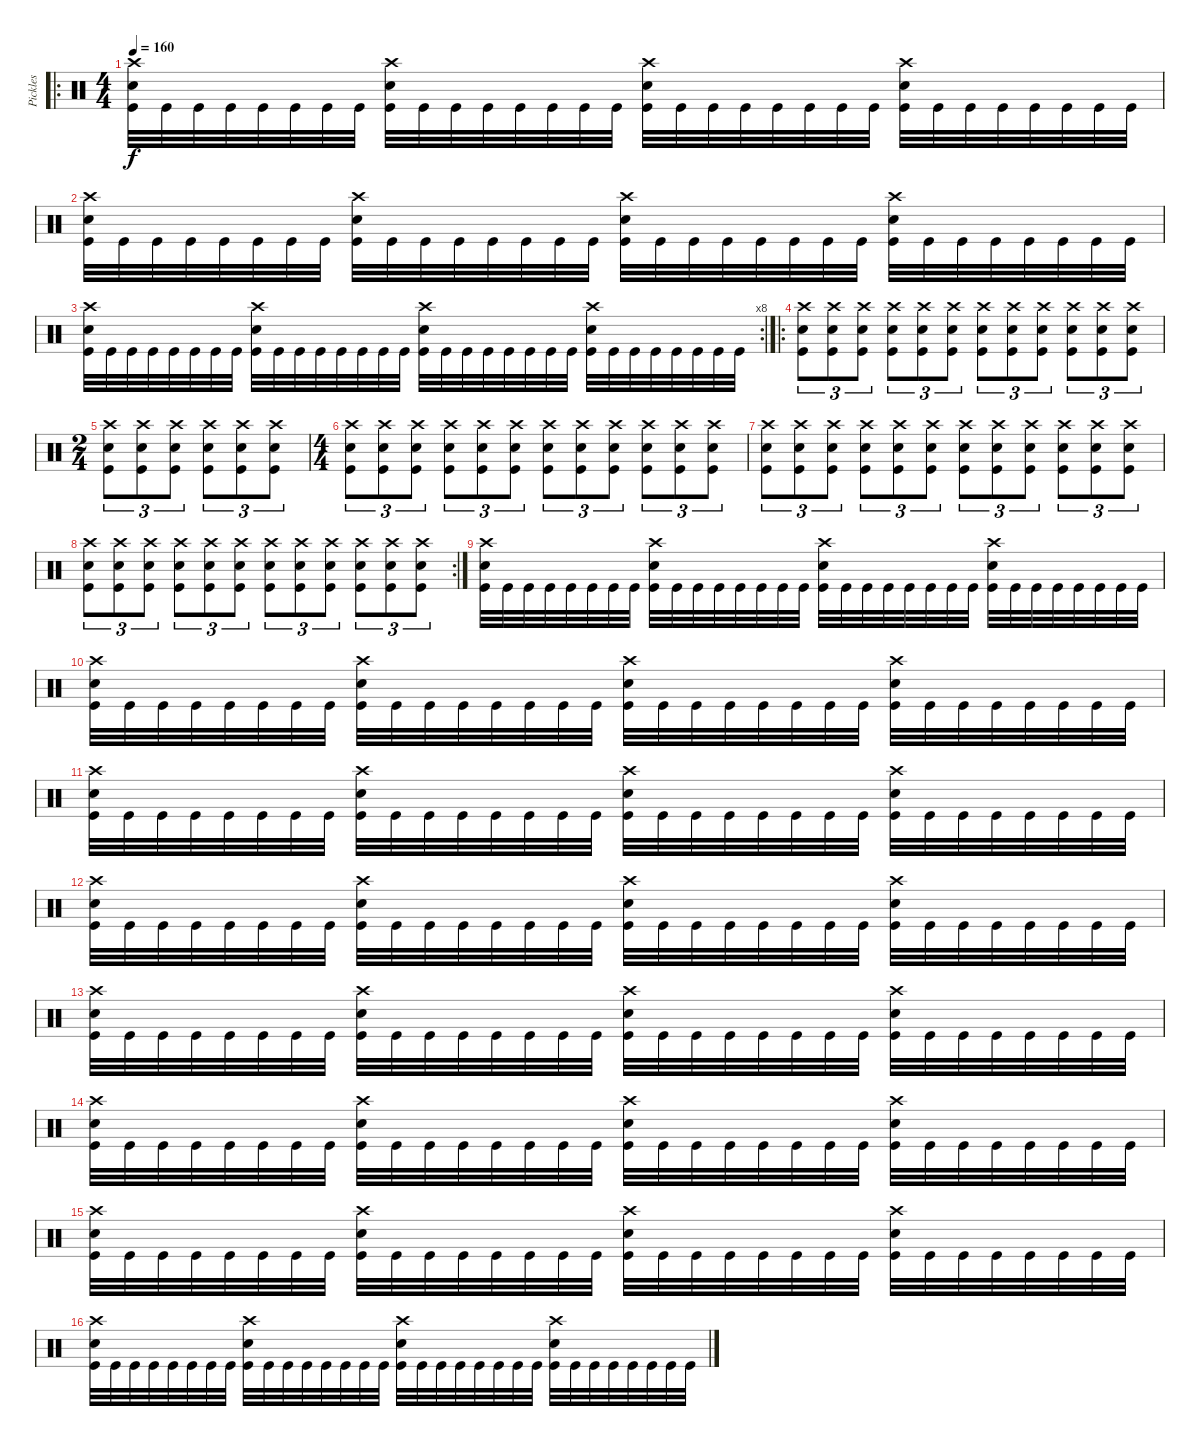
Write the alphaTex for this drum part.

\track ("Pickles" "Pickles") {instrument percussion}
\staff {score}
\articulation defaults
\ro
\ts (4 4)
\tempo 160
\clef neutral
\ks c
("Crash high (hit)" "Snare (hit) 2" "Kick (hit)").32{dy f} "Kick (hit)".32 "Kick (hit)".32 "Kick (hit)".32 "Kick (hit)".32 "Kick (hit)".32 "Kick (hit)".32 "Kick (hit)".32 ("Crash high (hit)" "Snare (hit) 2" "Kick (hit)").32 "Kick (hit)".32 "Kick (hit)".32 "Kick (hit)".32 "Kick (hit)".32 "Kick (hit)".32 "Kick (hit)".32 "Kick (hit)".32 ("Crash high (hit)" "Snare (hit) 2" "Kick (hit)").32 "Kick (hit)".32 "Kick (hit)".32 "Kick (hit)".32 "Kick (hit)".32 "Kick (hit)".32 "Kick (hit)".32 "Kick (hit)".32 ("Crash high (hit)" "Snare (hit) 2" "Kick (hit)").32 "Kick (hit)".32 "Kick (hit)".32 "Kick (hit)".32 "Kick (hit)".32 "Kick (hit)".32 "Kick (hit)".32 "Kick (hit)".32 |
("Crash high (hit)" "Snare (hit) 2" "Kick (hit)").32 "Kick (hit)".32 "Kick (hit)".32 "Kick (hit)".32 "Kick (hit)".32 "Kick (hit)".32 "Kick (hit)".32 "Kick (hit)".32 ("Crash high (hit)" "Snare (hit) 2" "Kick (hit)").32 "Kick (hit)".32 "Kick (hit)".32 "Kick (hit)".32 "Kick (hit)".32 "Kick (hit)".32 "Kick (hit)".32 "Kick (hit)".32 ("Crash high (hit)" "Snare (hit) 2" "Kick (hit)").32 "Kick (hit)".32 "Kick (hit)".32 "Kick (hit)".32 "Kick (hit)".32 "Kick (hit)".32 "Kick (hit)".32 "Kick (hit)".32 ("Crash high (hit)" "Snare (hit) 2" "Kick (hit)").32 "Kick (hit)".32 "Kick (hit)".32 "Kick (hit)".32 "Kick (hit)".32 "Kick (hit)".32 "Kick (hit)".32 "Kick (hit)".32 |
\rc 8
("Crash high (hit)" "Snare (hit) 2" "Kick (hit)").32 "Kick (hit)".32 "Kick (hit)".32 "Kick (hit)".32 "Kick (hit)".32 "Kick (hit)".32 "Kick (hit)".32 "Kick (hit)".32 ("Crash high (hit)" "Snare (hit) 2" "Kick (hit)").32 "Kick (hit)".32 "Kick (hit)".32 "Kick (hit)".32 "Kick (hit)".32 "Kick (hit)".32 "Kick (hit)".32 "Kick (hit)".32 ("Crash high (hit)" "Snare (hit) 2" "Kick (hit)").32 "Kick (hit)".32 "Kick (hit)".32 "Kick (hit)".32 "Kick (hit)".32 "Kick (hit)".32 "Kick (hit)".32 "Kick (hit)".32 ("Crash high (hit)" "Snare (hit) 2" "Kick (hit)").32 "Kick (hit)".32 "Kick (hit)".32 "Kick (hit)".32 "Kick (hit)".32 "Kick (hit)".32 "Kick (hit)".32 "Kick (hit)".32 |
\ro
("Crash high (hit)" "Snare (hit) 2" "Kick (hit)").8{tu (3 2)} ("Crash high (hit)" "Snare (hit) 2" "Kick (hit)").8{tu (3 2)} ("Crash high (hit)" "Snare (hit) 2" "Kick (hit)").8{tu (3 2)} ("Crash high (hit)" "Snare (hit) 2" "Kick (hit)").8{tu (3 2)} ("Crash high (hit)" "Snare (hit) 2" "Kick (hit)").8{tu (3 2)} ("Crash high (hit)" "Snare (hit) 2" "Kick (hit)").8{tu (3 2)} ("Crash high (hit)" "Snare (hit) 2" "Kick (hit)").8{tu (3 2)} ("Crash high (hit)" "Snare (hit) 2" "Kick (hit)").8{tu (3 2)} ("Crash high (hit)" "Snare (hit) 2" "Kick (hit)").8{tu (3 2)} ("Crash high (hit)" "Snare (hit) 2" "Kick (hit)").8{tu (3 2)} ("Crash high (hit)" "Snare (hit) 2" "Kick (hit)").8{tu (3 2)} ("Crash high (hit)" "Snare (hit) 2" "Kick (hit)").8{tu (3 2)} |
\ts (2 4)
("Crash high (hit)" "Snare (hit) 2" "Kick (hit)").8{tu (3 2)} ("Crash high (hit)" "Snare (hit) 2" "Kick (hit)").8{tu (3 2)} ("Crash high (hit)" "Snare (hit) 2" "Kick (hit)").8{tu (3 2)} ("Crash high (hit)" "Snare (hit) 2" "Kick (hit)").8{tu (3 2)} ("Crash high (hit)" "Snare (hit) 2" "Kick (hit)").8{tu (3 2)} ("Crash high (hit)" "Snare (hit) 2" "Kick (hit)").8{tu (3 2)} |
\ts (4 4)
("Crash high (hit)" "Snare (hit) 2" "Kick (hit)").8{tu (3 2)} ("Crash high (hit)" "Snare (hit) 2" "Kick (hit)").8{tu (3 2)} ("Crash high (hit)" "Snare (hit) 2" "Kick (hit)").8{tu (3 2)} ("Crash high (hit)" "Snare (hit) 2" "Kick (hit)").8{tu (3 2)} ("Crash high (hit)" "Snare (hit) 2" "Kick (hit)").8{tu (3 2)} ("Crash high (hit)" "Snare (hit) 2" "Kick (hit)").8{tu (3 2)} ("Crash high (hit)" "Snare (hit) 2" "Kick (hit)").8{tu (3 2)} ("Crash high (hit)" "Snare (hit) 2" "Kick (hit)").8{tu (3 2)} ("Crash high (hit)" "Snare (hit) 2" "Kick (hit)").8{tu (3 2)} ("Crash high (hit)" "Snare (hit) 2" "Kick (hit)").8{tu (3 2)} ("Crash high (hit)" "Snare (hit) 2" "Kick (hit)").8{tu (3 2)} ("Crash high (hit)" "Snare (hit) 2" "Kick (hit)").8{tu (3 2)} |
("Crash high (hit)" "Snare (hit) 2" "Kick (hit)").8{tu (3 2)} ("Crash high (hit)" "Snare (hit) 2" "Kick (hit)").8{tu (3 2)} ("Crash high (hit)" "Snare (hit) 2" "Kick (hit)").8{tu (3 2)} ("Crash high (hit)" "Snare (hit) 2" "Kick (hit)").8{tu (3 2)} ("Crash high (hit)" "Snare (hit) 2" "Kick (hit)").8{tu (3 2)} ("Crash high (hit)" "Snare (hit) 2" "Kick (hit)").8{tu (3 2)} ("Crash high (hit)" "Snare (hit) 2" "Kick (hit)").8{tu (3 2)} ("Crash high (hit)" "Snare (hit) 2" "Kick (hit)").8{tu (3 2)} ("Crash high (hit)" "Snare (hit) 2" "Kick (hit)").8{tu (3 2)} ("Crash high (hit)" "Snare (hit) 2" "Kick (hit)").8{tu (3 2)} ("Crash high (hit)" "Snare (hit) 2" "Kick (hit)").8{tu (3 2)} ("Crash high (hit)" "Snare (hit) 2" "Kick (hit)").8{tu (3 2)} |
\rc 2
("Crash high (hit)" "Snare (hit) 2" "Kick (hit)").8{tu (3 2)} ("Crash high (hit)" "Snare (hit) 2" "Kick (hit)").8{tu (3 2)} ("Crash high (hit)" "Snare (hit) 2" "Kick (hit)").8{tu (3 2)} ("Crash high (hit)" "Snare (hit) 2" "Kick (hit)").8{tu (3 2)} ("Crash high (hit)" "Snare (hit) 2" "Kick (hit)").8{tu (3 2)} ("Crash high (hit)" "Snare (hit) 2" "Kick (hit)").8{tu (3 2)} ("Crash high (hit)" "Snare (hit) 2" "Kick (hit)").8{tu (3 2)} ("Crash high (hit)" "Snare (hit) 2" "Kick (hit)").8{tu (3 2)} ("Crash high (hit)" "Snare (hit) 2" "Kick (hit)").8{tu (3 2)} ("Crash high (hit)" "Snare (hit) 2" "Kick (hit)").8{tu (3 2)} ("Crash high (hit)" "Snare (hit) 2" "Kick (hit)").8{tu (3 2)} ("Crash high (hit)" "Snare (hit) 2" "Kick (hit)").8{tu (3 2)} |
("Crash high (hit)" "Snare (hit) 2" "Kick (hit)").32 "Kick (hit)".32 "Kick (hit)".32 "Kick (hit)".32 "Kick (hit)".32 "Kick (hit)".32 "Kick (hit)".32 "Kick (hit)".32 ("Crash high (hit)" "Snare (hit) 2" "Kick (hit)").32 "Kick (hit)".32 "Kick (hit)".32 "Kick (hit)".32 "Kick (hit)".32 "Kick (hit)".32 "Kick (hit)".32 "Kick (hit)".32 ("Crash high (hit)" "Snare (hit) 2" "Kick (hit)").32 "Kick (hit)".32 "Kick (hit)".32 "Kick (hit)".32 "Kick (hit)".32 "Kick (hit)".32 "Kick (hit)".32 "Kick (hit)".32 ("Crash high (hit)" "Snare (hit) 2" "Kick (hit)").32 "Kick (hit)".32 "Kick (hit)".32 "Kick (hit)".32 "Kick (hit)".32 "Kick (hit)".32 "Kick (hit)".32 "Kick (hit)".32 |
("Crash high (hit)" "Snare (hit) 2" "Kick (hit)").32 "Kick (hit)".32 "Kick (hit)".32 "Kick (hit)".32 "Kick (hit)".32 "Kick (hit)".32 "Kick (hit)".32 "Kick (hit)".32 ("Crash high (hit)" "Snare (hit) 2" "Kick (hit)").32 "Kick (hit)".32 "Kick (hit)".32 "Kick (hit)".32 "Kick (hit)".32 "Kick (hit)".32 "Kick (hit)".32 "Kick (hit)".32 ("Crash high (hit)" "Snare (hit) 2" "Kick (hit)").32 "Kick (hit)".32 "Kick (hit)".32 "Kick (hit)".32 "Kick (hit)".32 "Kick (hit)".32 "Kick (hit)".32 "Kick (hit)".32 ("Crash high (hit)" "Snare (hit) 2" "Kick (hit)").32 "Kick (hit)".32 "Kick (hit)".32 "Kick (hit)".32 "Kick (hit)".32 "Kick (hit)".32 "Kick (hit)".32 "Kick (hit)".32 |
("Crash high (hit)" "Snare (hit) 2" "Kick (hit)").32 "Kick (hit)".32 "Kick (hit)".32 "Kick (hit)".32 "Kick (hit)".32 "Kick (hit)".32 "Kick (hit)".32 "Kick (hit)".32 ("Crash high (hit)" "Snare (hit) 2" "Kick (hit)").32 "Kick (hit)".32 "Kick (hit)".32 "Kick (hit)".32 "Kick (hit)".32 "Kick (hit)".32 "Kick (hit)".32 "Kick (hit)".32 ("Crash high (hit)" "Snare (hit) 2" "Kick (hit)").32 "Kick (hit)".32 "Kick (hit)".32 "Kick (hit)".32 "Kick (hit)".32 "Kick (hit)".32 "Kick (hit)".32 "Kick (hit)".32 ("Crash high (hit)" "Snare (hit) 2" "Kick (hit)").32 "Kick (hit)".32 "Kick (hit)".32 "Kick (hit)".32 "Kick (hit)".32 "Kick (hit)".32 "Kick (hit)".32 "Kick (hit)".32 |
("Crash high (hit)" "Snare (hit) 2" "Kick (hit)").32 "Kick (hit)".32 "Kick (hit)".32 "Kick (hit)".32 "Kick (hit)".32 "Kick (hit)".32 "Kick (hit)".32 "Kick (hit)".32 ("Crash high (hit)" "Snare (hit) 2" "Kick (hit)").32 "Kick (hit)".32 "Kick (hit)".32 "Kick (hit)".32 "Kick (hit)".32 "Kick (hit)".32 "Kick (hit)".32 "Kick (hit)".32 ("Crash high (hit)" "Snare (hit) 2" "Kick (hit)").32 "Kick (hit)".32 "Kick (hit)".32 "Kick (hit)".32 "Kick (hit)".32 "Kick (hit)".32 "Kick (hit)".32 "Kick (hit)".32 ("Crash high (hit)" "Snare (hit) 2" "Kick (hit)").32 "Kick (hit)".32 "Kick (hit)".32 "Kick (hit)".32 "Kick (hit)".32 "Kick (hit)".32 "Kick (hit)".32 "Kick (hit)".32 |
("Crash high (hit)" "Snare (hit) 2" "Kick (hit)").32 "Kick (hit)".32 "Kick (hit)".32 "Kick (hit)".32 "Kick (hit)".32 "Kick (hit)".32 "Kick (hit)".32 "Kick (hit)".32 ("Crash high (hit)" "Snare (hit) 2" "Kick (hit)").32 "Kick (hit)".32 "Kick (hit)".32 "Kick (hit)".32 "Kick (hit)".32 "Kick (hit)".32 "Kick (hit)".32 "Kick (hit)".32 ("Crash high (hit)" "Snare (hit) 2" "Kick (hit)").32 "Kick (hit)".32 "Kick (hit)".32 "Kick (hit)".32 "Kick (hit)".32 "Kick (hit)".32 "Kick (hit)".32 "Kick (hit)".32 ("Crash high (hit)" "Snare (hit) 2" "Kick (hit)").32 "Kick (hit)".32 "Kick (hit)".32 "Kick (hit)".32 "Kick (hit)".32 "Kick (hit)".32 "Kick (hit)".32 "Kick (hit)".32 |
("Crash high (hit)" "Snare (hit) 2" "Kick (hit)").32 "Kick (hit)".32 "Kick (hit)".32 "Kick (hit)".32 "Kick (hit)".32 "Kick (hit)".32 "Kick (hit)".32 "Kick (hit)".32 ("Crash high (hit)" "Snare (hit) 2" "Kick (hit)").32 "Kick (hit)".32 "Kick (hit)".32 "Kick (hit)".32 "Kick (hit)".32 "Kick (hit)".32 "Kick (hit)".32 "Kick (hit)".32 ("Crash high (hit)" "Snare (hit) 2" "Kick (hit)").32 "Kick (hit)".32 "Kick (hit)".32 "Kick (hit)".32 "Kick (hit)".32 "Kick (hit)".32 "Kick (hit)".32 "Kick (hit)".32 ("Crash high (hit)" "Snare (hit) 2" "Kick (hit)").32 "Kick (hit)".32 "Kick (hit)".32 "Kick (hit)".32 "Kick (hit)".32 "Kick (hit)".32 "Kick (hit)".32 "Kick (hit)".32 |
("Crash high (hit)" "Snare (hit) 2" "Kick (hit)").32 "Kick (hit)".32 "Kick (hit)".32 "Kick (hit)".32 "Kick (hit)".32 "Kick (hit)".32 "Kick (hit)".32 "Kick (hit)".32 ("Crash high (hit)" "Snare (hit) 2" "Kick (hit)").32 "Kick (hit)".32 "Kick (hit)".32 "Kick (hit)".32 "Kick (hit)".32 "Kick (hit)".32 "Kick (hit)".32 "Kick (hit)".32 ("Crash high (hit)" "Snare (hit) 2" "Kick (hit)").32 "Kick (hit)".32 "Kick (hit)".32 "Kick (hit)".32 "Kick (hit)".32 "Kick (hit)".32 "Kick (hit)".32 "Kick (hit)".32 ("Crash high (hit)" "Snare (hit) 2" "Kick (hit)").32 "Kick (hit)".32 "Kick (hit)".32 "Kick (hit)".32 "Kick (hit)".32 "Kick (hit)".32 "Kick (hit)".32 "Kick (hit)".32 |
("Crash high (hit)" "Snare (hit) 2" "Kick (hit)").32 "Kick (hit)".32 "Kick (hit)".32 "Kick (hit)".32 "Kick (hit)".32 "Kick (hit)".32 "Kick (hit)".32 "Kick (hit)".32 ("Crash high (hit)" "Snare (hit) 2" "Kick (hit)").32 "Kick (hit)".32 "Kick (hit)".32 "Kick (hit)".32 "Kick (hit)".32 "Kick (hit)".32 "Kick (hit)".32 "Kick (hit)".32 ("Crash high (hit)" "Snare (hit) 2" "Kick (hit)").32 "Kick (hit)".32 "Kick (hit)".32 "Kick (hit)".32 "Kick (hit)".32 "Kick (hit)".32 "Kick (hit)".32 "Kick (hit)".32 ("Crash high (hit)" "Snare (hit) 2" "Kick (hit)").32 "Kick (hit)".32 "Kick (hit)".32 "Kick (hit)".32 "Kick (hit)".32 "Kick (hit)".32 "Kick (hit)".32 "Kick (hit)".32
